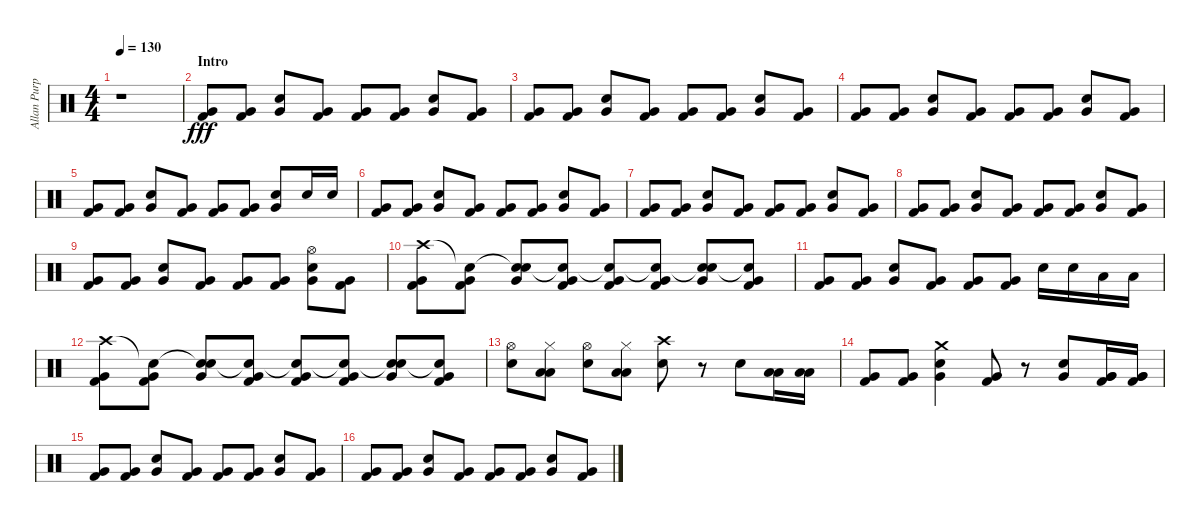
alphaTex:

\track ("Allan Purple" "Allan Purp") {instrument percussion}
\staff {score}
\articulation defaults
\ts (4 4)
\tempo 130
\clef neutral
\ks c
r.1{dy fff} |
\section ("" "Intro")
("Kick (hit) 2" "Very Low Tom (hit)").8 ("Kick (hit) 2" "Very Low Tom (hit)").8 ("Electric Snare (hit)" "Very Low Tom (hit)").8 ("Kick (hit) 2" "Very Low Tom (hit)").8 ("Kick (hit) 2" "Very Low Tom (hit)").8 ("Kick (hit) 2" "Very Low Tom (hit)").8 ("Electric Snare (hit)" "Very Low Tom (hit)").8 ("Kick (hit) 2" "Very Low Tom (hit)").8 |
("Kick (hit) 2" "Very Low Tom (hit)").8 ("Kick (hit) 2" "Very Low Tom (hit)").8 ("Electric Snare (hit)" "Very Low Tom (hit)").8 ("Kick (hit) 2" "Very Low Tom (hit)").8 ("Kick (hit) 2" "Very Low Tom (hit)").8 ("Kick (hit) 2" "Very Low Tom (hit)").8 ("Electric Snare (hit)" "Very Low Tom (hit)").8 ("Kick (hit) 2" "Very Low Tom (hit)").8 |
("Kick (hit) 2" "Very Low Tom (hit)").8 ("Kick (hit) 2" "Very Low Tom (hit)").8 ("Electric Snare (hit)" "Very Low Tom (hit)").8 ("Kick (hit) 2" "Very Low Tom (hit)").8 ("Kick (hit) 2" "Very Low Tom (hit)").8 ("Kick (hit) 2" "Very Low Tom (hit)").8 ("Electric Snare (hit)" "Very Low Tom (hit)").8 ("Kick (hit) 2" "Very Low Tom (hit)").8 |
("Kick (hit) 2" "Very Low Tom (hit)").8 ("Kick (hit) 2" "Very Low Tom (hit)").8 ("Electric Snare (hit)" "Very Low Tom (hit)").8 ("Kick (hit) 2" "Very Low Tom (hit)").8 ("Kick (hit) 2" "Very Low Tom (hit)").8 ("Kick (hit) 2" "Very Low Tom (hit)").8 ("Electric Snare (hit)" "Very Low Tom (hit)").8 "Electric Snare (hit)".16 "Electric Snare (hit)".16 |
("Kick (hit) 2" "Very Low Tom (hit)").8 ("Kick (hit) 2" "Very Low Tom (hit)").8 ("Electric Snare (hit)" "Very Low Tom (hit)").8 ("Kick (hit) 2" "Very Low Tom (hit)").8 ("Kick (hit) 2" "Very Low Tom (hit)").8 ("Kick (hit) 2" "Very Low Tom (hit)").8 ("Electric Snare (hit)" "Very Low Tom (hit)").8 ("Kick (hit) 2" "Very Low Tom (hit)").8 |
("Kick (hit) 2" "Very Low Tom (hit)").8 ("Kick (hit) 2" "Very Low Tom (hit)").8 ("Electric Snare (hit)" "Very Low Tom (hit)").8 ("Kick (hit) 2" "Very Low Tom (hit)").8 ("Kick (hit) 2" "Very Low Tom (hit)").8 ("Kick (hit) 2" "Very Low Tom (hit)").8 ("Electric Snare (hit)" "Very Low Tom (hit)").8 ("Kick (hit) 2" "Very Low Tom (hit)").8 |
("Kick (hit) 2" "Very Low Tom (hit)").8 ("Kick (hit) 2" "Very Low Tom (hit)").8 ("Electric Snare (hit)" "Very Low Tom (hit)").8 ("Kick (hit) 2" "Very Low Tom (hit)").8 ("Kick (hit) 2" "Very Low Tom (hit)").8 ("Kick (hit) 2" "Very Low Tom (hit)").8 ("Electric Snare (hit)" "Very Low Tom (hit)").8 ("Kick (hit) 2" "Very Low Tom (hit)").8 |
("Kick (hit) 2" "Very Low Tom (hit)").8 ("Kick (hit) 2" "Very Low Tom (hit)").8 ("Electric Snare (hit)" "Very Low Tom (hit)").8 ("Kick (hit) 2" "Very Low Tom (hit)").8 ("Kick (hit) 2" "Very Low Tom (hit)").8 ("Kick (hit) 2" "Very Low Tom (hit)").8 ("Hi-Hat (open)" "Electric Snare (hit)" "Very Low Tom (hit)").8 ("Kick (hit) 2" "Very Low Tom (hit)").8 |
("Crash high (hit)" "Kick (hit) 2" "Very Low Tom (hit)").8 ("Snare (hit)"{t} "Kick (hit) 2" "Very Low Tom (hit)").8 ("Snare (hit)"{t} "Electric Snare (hit)" "Very Low Tom (hit)").8 ("Snare (hit)"{t} "Kick (hit) 2" "Very Low Tom (hit)").8 ("Snare (hit)"{t} "Kick (hit) 2" "Very Low Tom (hit)").8 ("Snare (hit)"{t} "Kick (hit) 2" "Very Low Tom (hit)").8 ("Snare (hit)"{t} "Electric Snare (hit)" "Very Low Tom (hit)").8 ("Snare (hit)"{t} "Kick (hit) 2" "Very Low Tom (hit)").8 |
("Kick (hit) 2" "Very Low Tom (hit)").8 ("Kick (hit) 2" "Very Low Tom (hit)").8 ("Electric Snare (hit)" "Very Low Tom (hit)").8 ("Kick (hit) 2" "Very Low Tom (hit)").8 ("Kick (hit) 2" "Very Low Tom (hit)").8 ("Kick (hit) 2" "Very Low Tom (hit)").8 "Electric Snare (hit)".16 "Electric Snare (hit)".16 "Low Tom (hit)".16 "Low Tom (hit)".16 |
("Crash high (hit)" "Kick (hit) 2" "Very Low Tom (hit)").8 ("Snare (hit)"{t} "Kick (hit) 2" "Very Low Tom (hit)").8 ("Snare (hit)"{t} "Electric Snare (hit)" "Very Low Tom (hit)").8 ("Snare (hit)"{t} "Kick (hit) 2" "Very Low Tom (hit)").8 ("Snare (hit)"{t} "Kick (hit) 2" "Very Low Tom (hit)").8 ("Snare (hit)"{t} "Kick (hit) 2" "Very Low Tom (hit)").8 ("Snare (hit)"{t} "Electric Snare (hit)" "Very Low Tom (hit)").8 ("Snare (hit)"{t} "Kick (hit) 2" "Very Low Tom (hit)").8 |
("Hi-Hat (open)" "Electric Snare (hit)").8 ("Hi-Hat (closed)" "Low Tom (hit)" "Low Tom (hit)").8 ("Hi-Hat (open)" "Electric Snare (hit)").8 ("Hi-Hat (closed)" "Low Tom (hit)" "Low Tom (hit)").8 ("Crash high (hit)" "Electric Snare (hit)").8 r.8 "Snare (hit) 2".8 ("Low Tom (hit)" "Low Tom (hit)").16 ("Low Tom (hit)" "Low Tom (hit)").16 |
("Kick (hit) 2" "Very Low Tom (hit)").8 ("Kick (hit) 2" "Very Low Tom (hit)").8 ("Crash medium (hit)" "Electric Snare (hit)" "Very Low Tom (hit)").4 ("Kick (hit) 2" "Very Low Tom (hit)").8 r.8 ("Electric Snare (hit)" "Very Low Tom (hit)").8 ("Kick (hit) 2" "Very Low Tom (hit)" "Very Low Tom (hit)").16 ("Kick (hit) 2" "Very Low Tom (hit)" "Very Low Tom (hit)").16 |
("Kick (hit) 2" "Very Low Tom (hit)").8 ("Kick (hit) 2" "Very Low Tom (hit)").8 ("Electric Snare (hit)" "Very Low Tom (hit)").8 ("Kick (hit) 2" "Very Low Tom (hit)").8 ("Kick (hit) 2" "Very Low Tom (hit)").8 ("Kick (hit) 2" "Very Low Tom (hit)").8 ("Electric Snare (hit)" "Very Low Tom (hit)").8 ("Kick (hit) 2" "Very Low Tom (hit)").8 |
("Kick (hit) 2" "Very Low Tom (hit)").8 ("Kick (hit) 2" "Very Low Tom (hit)").8 ("Electric Snare (hit)" "Very Low Tom (hit)").8 ("Kick (hit) 2" "Very Low Tom (hit)").8 ("Kick (hit) 2" "Very Low Tom (hit)").8 ("Kick (hit) 2" "Very Low Tom (hit)").8 ("Electric Snare (hit)" "Very Low Tom (hit)").8 ("Kick (hit) 2" "Very Low Tom (hit)").8
